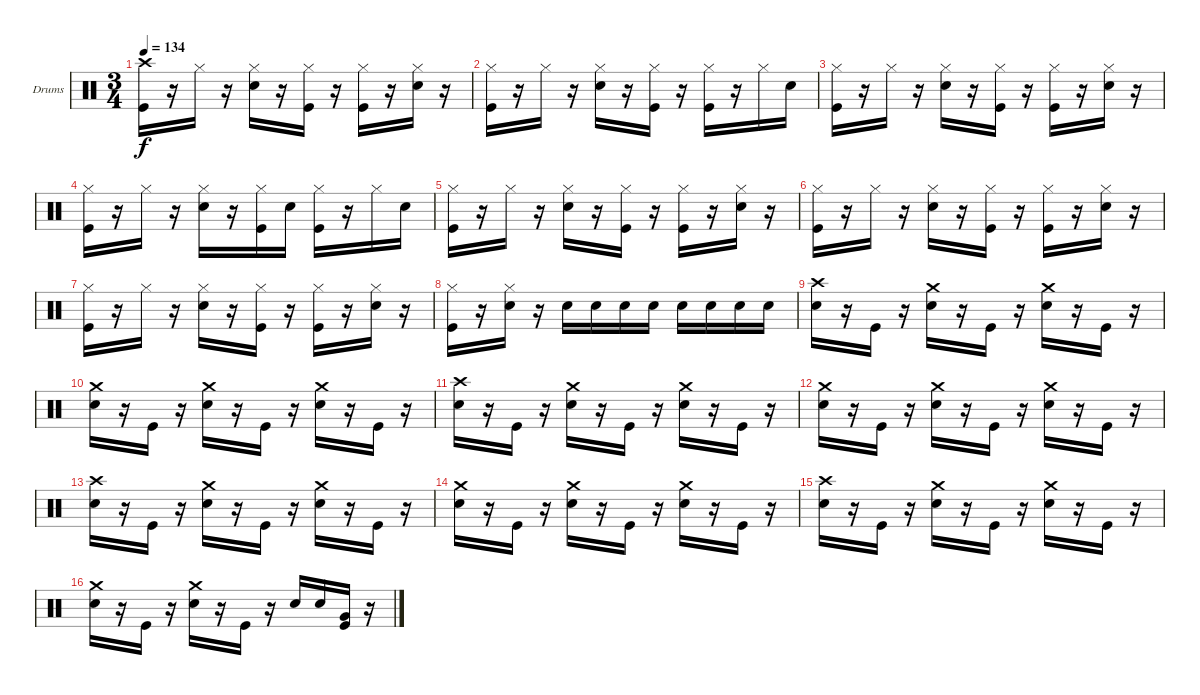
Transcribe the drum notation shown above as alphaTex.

\bracketExtendMode groupsimilarinstruments
\firstSystemTrackNameOrientation horizontal
\otherSystemsTrackNameOrientation horizontal
\track ("Drumkit" "Drums") {instrument percussion}
\staff {score}
\articulation defaults
\ts (3 4)
\tempo 134
\clef neutral
\ks c
("Kick (hit)" "Crash high (hit)").16{dy f} r.16 "Hi-Hat (closed)".16 r.16 ("Hi-Hat (closed)" "Snare (hit) 2").16 r.16 ("Hi-Hat (closed)" "Kick (hit)").16 r.16 ("Hi-Hat (closed)" "Kick (hit)").16 r.16 ("Snare (hit) 2" "Hi-Hat (closed)").16 r.16 |
("Hi-Hat (closed)" "Kick (hit)").16 r.16 "Hi-Hat (closed)".16 r.16 ("Snare (hit) 2" "Hi-Hat (closed)").16 r.16 ("Hi-Hat (closed)" "Kick (hit)").16 r.16 ("Hi-Hat (closed)" "Kick (hit)").16 r.16 "Hi-Hat (closed)".16 "Snare (hit) 2".16 |
("Hi-Hat (closed)" "Kick (hit)").16 r.16 "Hi-Hat (closed)".16 r.16 ("Snare (hit) 2" "Hi-Hat (closed)").16 r.16 ("Hi-Hat (closed)" "Kick (hit)").16 r.16 ("Kick (hit)" "Hi-Hat (closed)").16 r.16 ("Hi-Hat (closed)" "Snare (hit) 2").16 r.16 |
("Hi-Hat (closed)" "Kick (hit)").16 r.16 "Hi-Hat (closed)".16 r.16 ("Hi-Hat (closed)" "Snare (hit) 2").16 r.16 ("Kick (hit)" "Hi-Hat (closed)").16 "Snare (hit) 2".16 ("Kick (hit)" "Hi-Hat (closed)").16 r.16 "Hi-Hat (closed)".16 "Snare (hit) 2".16 |
("Hi-Hat (closed)" "Kick (hit)").16 r.16 "Hi-Hat (closed)".16 r.16 ("Snare (hit) 2" "Hi-Hat (closed)").16 r.16 ("Hi-Hat (closed)" "Kick (hit)").16 r.16 ("Kick (hit)" "Hi-Hat (closed)").16 r.16 ("Hi-Hat (closed)" "Snare (hit) 2").16 r.16 |
("Kick (hit)" "Hi-Hat (closed)").16 r.16 "Hi-Hat (closed)".16 r.16 ("Snare (hit) 2" "Hi-Hat (closed)").16 r.16 ("Hi-Hat (closed)" "Kick (hit)").16 r.16 ("Hi-Hat (closed)" "Kick (hit)").16 r.16 ("Snare (hit) 2" "Hi-Hat (closed)").16 r.16 |
("Kick (hit)" "Hi-Hat (closed)").16 r.16 "Hi-Hat (closed)".16 r.16 ("Hi-Hat (closed)" "Snare (hit) 2").16 r.16 ("Kick (hit)" "Hi-Hat (closed)").16 r.16 ("Hi-Hat (closed)" "Kick (hit)").16 r.16 ("Hi-Hat (closed)" "Snare (hit) 2").16 r.16 |
("Hi-Hat (closed)" "Kick (hit)").16 r.16 ("Snare (hit) 2" "Hi-Hat (closed)").16 r.16 "Snare (hit) 2".16 "Snare (hit) 2".16 "Snare (hit) 2".16 "Snare (hit) 2".16 "Snare (hit) 2".16 "Snare (hit) 2".16 "Snare (hit) 2".16 "Snare (hit) 2".16 |
("Snare (hit) 2" "Crash high (hit)").16 r.16 "Kick (hit)".16 r.16 ("Crash medium (hit)" "Snare (hit) 2").16 r.16 "Kick (hit)".16 r.16 ("Crash medium (hit)" "Snare (hit) 2").16 r.16 "Kick (hit)".16 r.16 |
("Snare (hit) 2" "Crash medium (hit)").16 r.16 "Kick (hit)".16 r.16 ("Snare (hit) 2" "Crash medium (hit)").16 r.16 "Kick (hit)".16 r.16 ("Snare (hit) 2" "Crash medium (hit)").16 r.16 "Kick (hit)".16 r.16 |
("Crash high (hit)" "Snare (hit) 2").16 r.16 "Kick (hit)".16 r.16 ("Snare (hit) 2" "Crash medium (hit)").16 r.16 "Kick (hit)".16 r.16 ("Snare (hit) 2" "Crash medium (hit)").16 r.16 "Kick (hit)".16 r.16 |
("Snare (hit) 2" "Crash medium (hit)").16 r.16 "Kick (hit)".16 r.16 ("Crash medium (hit)" "Snare (hit) 2").16 r.16 "Kick (hit)".16 r.16 ("Crash medium (hit)" "Snare (hit) 2").16 r.16 "Kick (hit)".16 r.16 |
("Crash high (hit)" "Snare (hit) 2").16 r.16 "Kick (hit)".16 r.16 ("Snare (hit) 2" "Crash medium (hit)").16 r.16 "Kick (hit)".16 r.16 ("Snare (hit) 2" "Crash medium (hit)").16 r.16 "Kick (hit)".16 r.16 |
("Crash medium (hit)" "Snare (hit) 2").16 r.16 "Kick (hit)".16 r.16 ("Crash medium (hit)" "Snare (hit) 2").16 r.16 "Kick (hit)".16 r.16 ("Crash medium (hit)" "Snare (hit) 2").16 r.16 "Kick (hit)".16 r.16 |
("Snare (hit) 2" "Crash high (hit)").16 r.16 "Kick (hit)".16 r.16 ("Crash medium (hit)" "Snare (hit) 2").16 r.16 "Kick (hit)".16 r.16 ("Crash medium (hit)" "Snare (hit) 2").16 r.16 "Kick (hit)".16 r.16 |
("Crash medium (hit)" "Snare (hit) 2").16 r.16 "Kick (hit)".16 r.16 ("Snare (hit) 2" "Crash medium (hit)").16 r.16 "Kick (hit)".16 r.16 "Snare (hit) 2".16 "Snare (hit) 2".16 ("Very Low Tom (hit)" "Kick (hit)").16 r.16
